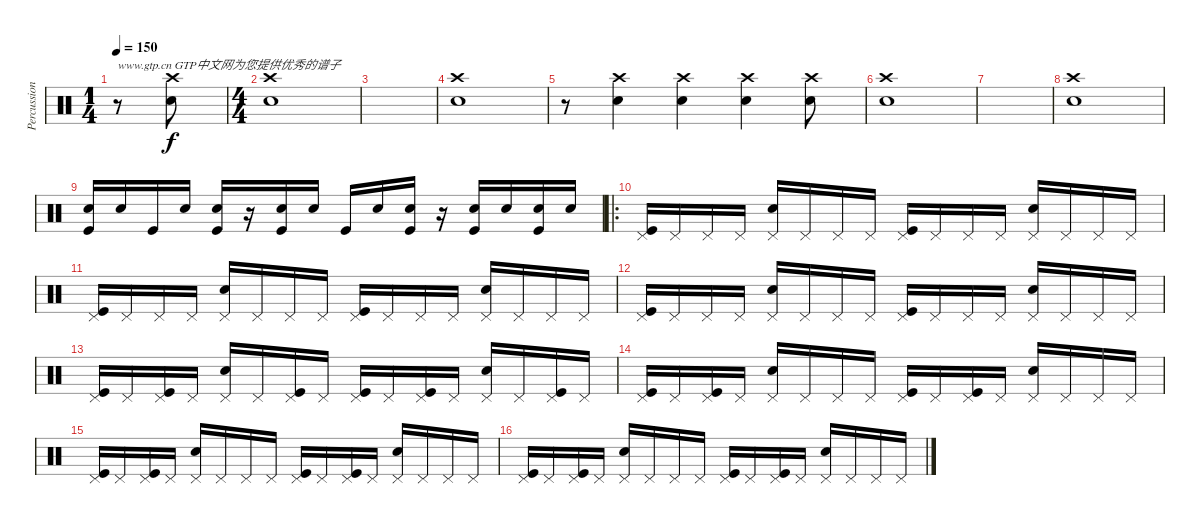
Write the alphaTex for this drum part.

\track ("Percussion" "Percussion") {instrument percussion}
\staff {score}
\articulation defaults
\ts (1 4)
\tempo 150
\clef neutral
\ks c
r.8{txt "www.gtp.cn GTP中文网为您提供优秀的谱子" dy f} ("Crash high (hit)" "Electric Snare (hit)").8 |
\ts (4 4)
("Crash high (hit)" "Electric Snare (hit)").1 |
|
("Crash high (hit)" "Electric Snare (hit)").1 |
r.8 ("Crash high (hit)" "Electric Snare (hit)").4 ("Crash high (hit)" "Electric Snare (hit)").4 ("Crash high (hit)" "Electric Snare (hit)").4 ("Crash high (hit)" "Electric Snare (hit)").8 |
("Crash high (hit)" "Electric Snare (hit)").1 |
|
("Crash high (hit)" "Electric Snare (hit)").1 |
("Electric Snare (hit)" "Kick (hit)").16 "Electric Snare (hit)".16 "Kick (hit)".16 "Electric Snare (hit)".16 ("Electric Snare (hit)" "Kick (hit)").16 r.16 ("Electric Snare (hit)" "Kick (hit)").16 "Electric Snare (hit)".16 "Kick (hit)".16 "Electric Snare (hit)".16 ("Electric Snare (hit)" "Kick (hit)").16 r.16 ("Electric Snare (hit)" "Kick (hit)").16 "Electric Snare (hit)".16 ("Electric Snare (hit)" "Kick (hit)").16 "Electric Snare (hit)".16 |
\ro
("Pedal Hi-Hat (hit)" "Kick (hit)").16 "Pedal Hi-Hat (hit)".16 "Pedal Hi-Hat (hit)".16 "Pedal Hi-Hat (hit)".16 ("Pedal Hi-Hat (hit)" "Electric Snare (hit)").16 "Pedal Hi-Hat (hit)".16 "Pedal Hi-Hat (hit)".16 "Pedal Hi-Hat (hit)".16 ("Pedal Hi-Hat (hit)" "Kick (hit)").16 "Pedal Hi-Hat (hit)".16 "Pedal Hi-Hat (hit)".16 "Pedal Hi-Hat (hit)".16 ("Pedal Hi-Hat (hit)" "Electric Snare (hit)").16 "Pedal Hi-Hat (hit)".16 "Pedal Hi-Hat (hit)".16 "Pedal Hi-Hat (hit)".16 |
("Pedal Hi-Hat (hit)" "Kick (hit)").16 "Pedal Hi-Hat (hit)".16 "Pedal Hi-Hat (hit)".16 "Pedal Hi-Hat (hit)".16 ("Pedal Hi-Hat (hit)" "Electric Snare (hit)").16 "Pedal Hi-Hat (hit)".16 "Pedal Hi-Hat (hit)".16 "Pedal Hi-Hat (hit)".16 ("Pedal Hi-Hat (hit)" "Kick (hit)").16 "Pedal Hi-Hat (hit)".16 "Pedal Hi-Hat (hit)".16 "Pedal Hi-Hat (hit)".16 ("Pedal Hi-Hat (hit)" "Electric Snare (hit)").16 "Pedal Hi-Hat (hit)".16 "Pedal Hi-Hat (hit)".16 "Pedal Hi-Hat (hit)".16 |
("Pedal Hi-Hat (hit)" "Kick (hit)").16 "Pedal Hi-Hat (hit)".16 "Pedal Hi-Hat (hit)".16 "Pedal Hi-Hat (hit)".16 ("Pedal Hi-Hat (hit)" "Electric Snare (hit)").16 "Pedal Hi-Hat (hit)".16 "Pedal Hi-Hat (hit)".16 "Pedal Hi-Hat (hit)".16 ("Pedal Hi-Hat (hit)" "Kick (hit)").16 "Pedal Hi-Hat (hit)".16 "Pedal Hi-Hat (hit)".16 "Pedal Hi-Hat (hit)".16 ("Pedal Hi-Hat (hit)" "Electric Snare (hit)").16 "Pedal Hi-Hat (hit)".16 "Pedal Hi-Hat (hit)".16 "Pedal Hi-Hat (hit)".16 |
("Pedal Hi-Hat (hit)" "Kick (hit)").16 "Pedal Hi-Hat (hit)".16 ("Pedal Hi-Hat (hit)" "Kick (hit)").16 "Pedal Hi-Hat (hit)".16 ("Pedal Hi-Hat (hit)" "Electric Snare (hit)").16 "Pedal Hi-Hat (hit)".16 ("Pedal Hi-Hat (hit)" "Kick (hit)").16 "Pedal Hi-Hat (hit)".16 ("Pedal Hi-Hat (hit)" "Kick (hit)").16 "Pedal Hi-Hat (hit)".16 ("Pedal Hi-Hat (hit)" "Kick (hit)").16 "Pedal Hi-Hat (hit)".16 ("Pedal Hi-Hat (hit)" "Electric Snare (hit)").16 "Pedal Hi-Hat (hit)".16 ("Pedal Hi-Hat (hit)" "Kick (hit)").16 "Pedal Hi-Hat (hit)".16 |
("Pedal Hi-Hat (hit)" "Kick (hit)").16 "Pedal Hi-Hat (hit)".16 ("Pedal Hi-Hat (hit)" "Kick (hit)").16 "Pedal Hi-Hat (hit)".16 ("Pedal Hi-Hat (hit)" "Electric Snare (hit)").16 "Pedal Hi-Hat (hit)".16 "Pedal Hi-Hat (hit)".16 "Pedal Hi-Hat (hit)".16 ("Pedal Hi-Hat (hit)" "Kick (hit)").16 "Pedal Hi-Hat (hit)".16 ("Pedal Hi-Hat (hit)" "Kick (hit)").16 "Pedal Hi-Hat (hit)".16 ("Pedal Hi-Hat (hit)" "Electric Snare (hit)").16 "Pedal Hi-Hat (hit)".16 "Pedal Hi-Hat (hit)".16 "Pedal Hi-Hat (hit)".16 |
("Pedal Hi-Hat (hit)" "Kick (hit)").16 "Pedal Hi-Hat (hit)".16 ("Pedal Hi-Hat (hit)" "Kick (hit)").16 "Pedal Hi-Hat (hit)".16 ("Pedal Hi-Hat (hit)" "Electric Snare (hit)").16 "Pedal Hi-Hat (hit)".16 "Pedal Hi-Hat (hit)".16 "Pedal Hi-Hat (hit)".16 ("Pedal Hi-Hat (hit)" "Kick (hit)").16 "Pedal Hi-Hat (hit)".16 ("Pedal Hi-Hat (hit)" "Kick (hit)").16 "Pedal Hi-Hat (hit)".16 ("Pedal Hi-Hat (hit)" "Electric Snare (hit)").16 "Pedal Hi-Hat (hit)".16 "Pedal Hi-Hat (hit)".16 "Pedal Hi-Hat (hit)".16 |
("Pedal Hi-Hat (hit)" "Kick (hit)").16 "Pedal Hi-Hat (hit)".16 ("Pedal Hi-Hat (hit)" "Kick (hit)").16 "Pedal Hi-Hat (hit)".16 ("Pedal Hi-Hat (hit)" "Electric Snare (hit)").16 "Pedal Hi-Hat (hit)".16 "Pedal Hi-Hat (hit)".16 "Pedal Hi-Hat (hit)".16 ("Pedal Hi-Hat (hit)" "Kick (hit)").16 "Pedal Hi-Hat (hit)".16 ("Pedal Hi-Hat (hit)" "Kick (hit)").16 "Pedal Hi-Hat (hit)".16 ("Pedal Hi-Hat (hit)" "Electric Snare (hit)").16 "Pedal Hi-Hat (hit)".16 "Pedal Hi-Hat (hit)".16 "Pedal Hi-Hat (hit)".16
